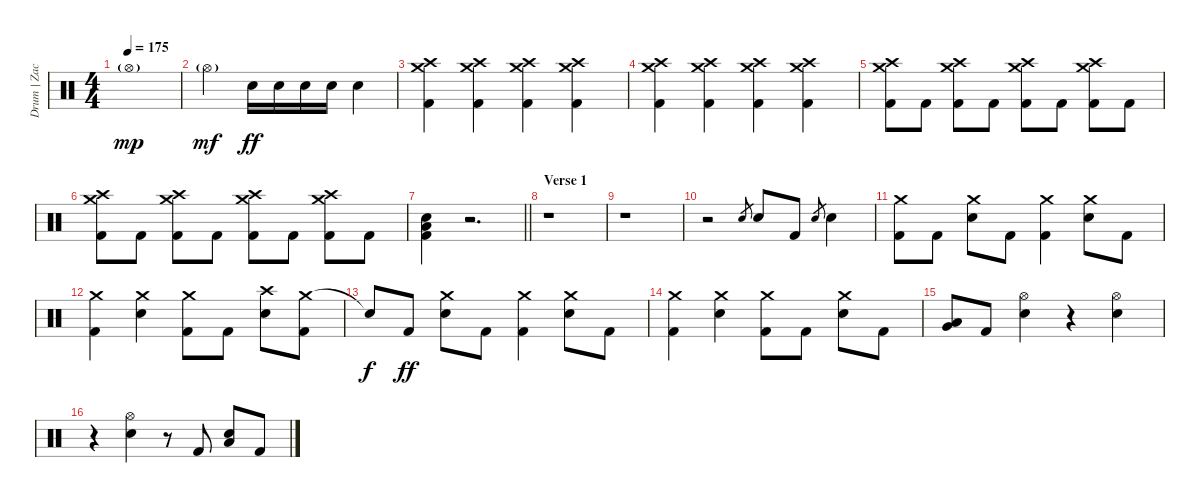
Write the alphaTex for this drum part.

\track ("Drum | Zac" "Drum | Zac") {instrument percussion}
\staff {score}
\articulation defaults
\ts (4 4)
\tempo 175
\clef neutral
\ks c "Hi-Hat (open)"{g}.1{dy mp}
|
"Hi-Hat (open)"{g}.2{dy mf} "Snare (hit) 2".16{dy ff} "Snare (hit) 2".16 "Snare (hit) 2".16 "Snare (hit) 2".16 "Snare (hit) 2".4 |
("Crash medium (hit)" "Crash high (hit)" "Kick (hit) 2").4 ("Crash medium (hit)" "Crash high (hit)" "Kick (hit) 2").4 ("Crash medium (hit)" "Crash high (hit)" "Kick (hit) 2").4 ("Crash medium (hit)" "Crash high (hit)" "Kick (hit) 2").4 |
("Crash medium (hit)" "Crash high (hit)" "Kick (hit) 2").4 ("Crash medium (hit)" "Crash high (hit)" "Kick (hit) 2").4 ("Crash medium (hit)" "Crash high (hit)" "Kick (hit) 2").4 ("Crash medium (hit)" "Crash high (hit)" "Kick (hit) 2").4 |
("Crash medium (hit)" "Crash high (hit)" "Kick (hit) 2").8 "Kick (hit) 2".8 ("Crash medium (hit)" "Crash high (hit)" "Kick (hit) 2").8 "Kick (hit) 2".8 ("Crash medium (hit)" "Crash high (hit)" "Kick (hit) 2").8 "Kick (hit) 2".8 ("Crash medium (hit)" "Crash high (hit)" "Kick (hit) 2").8 "Kick (hit) 2".8 |
("Crash medium (hit)" "Crash high (hit)" "Kick (hit) 2").8 "Kick (hit) 2".8 ("Crash medium (hit)" "Crash high (hit)" "Kick (hit) 2").8 "Kick (hit) 2".8 ("Crash medium (hit)" "Crash high (hit)" "Kick (hit) 2").8 "Kick (hit) 2".8 ("Crash medium (hit)" "Crash high (hit)" "Kick (hit) 2").8 "Kick (hit) 2".8 |
\barLineRight lightlight
("Low Floor Tom (hit)" "Snare (hit) 2" "Kick (hit) 2").4 r.2{d} |
\section ("" "Verse 1")
r.1 |
r.1 |
r.2 "Electric Snare (hit)".8{gr} "Electric Snare (hit)".8 "Kick (hit) 2".8 "Electric Snare (hit)".8{gr} "Electric Snare (hit)".4 |
("Crash medium (hit)" "Kick (hit) 2").8 "Kick (hit) 2".8 ("Crash medium (hit)" "Electric Snare (hit)").8 "Kick (hit) 2".8 ("Crash medium (hit)" "Kick (hit) 2").4 ("Crash medium (hit)" "Electric Snare (hit)").8 "Kick (hit) 2".8 |
("Crash medium (hit)" "Kick (hit) 2").4 ("Crash medium (hit)" "Electric Snare (hit)").4 ("Crash medium (hit)" "Kick (hit) 2").8 "Kick (hit) 2".8 ("Crash high (hit)" "Electric Snare (hit)").8 ("Crash medium (hit)" "Kick (hit) 2").8 |
"Snare (hit)"{t}.8{dy f} "Kick (hit) 2".8{dy ff} ("Crash medium (hit)" "Electric Snare (hit)").8 "Kick (hit) 2".8 ("Crash medium (hit)" "Kick (hit) 2").4 ("Crash medium (hit)" "Electric Snare (hit)").8 "Kick (hit) 2".8 |
("Crash medium (hit)" "Kick (hit) 2").4 ("Crash medium (hit)" "Electric Snare (hit)").4 ("Crash medium (hit)" "Kick (hit) 2").8 "Kick (hit) 2".8 ("Crash medium (hit)" "Electric Snare (hit)").8 "Kick (hit) 2".8 |
("Low Tom (hit)" "Very Low Tom (hit)").8 "Kick (hit) 2".8 ("Hi-Hat (open)" "Electric Snare (hit)").4 r.4 ("Hi-Hat (open)" "Electric Snare (hit)").4 |
r.4 ("Hi-Hat (open)" "Electric Snare (hit)").4 r.8 "Kick (hit) 2".8 ("Low Tom (hit)" "Electric Snare (hit)").8 "Kick (hit) 2".8
